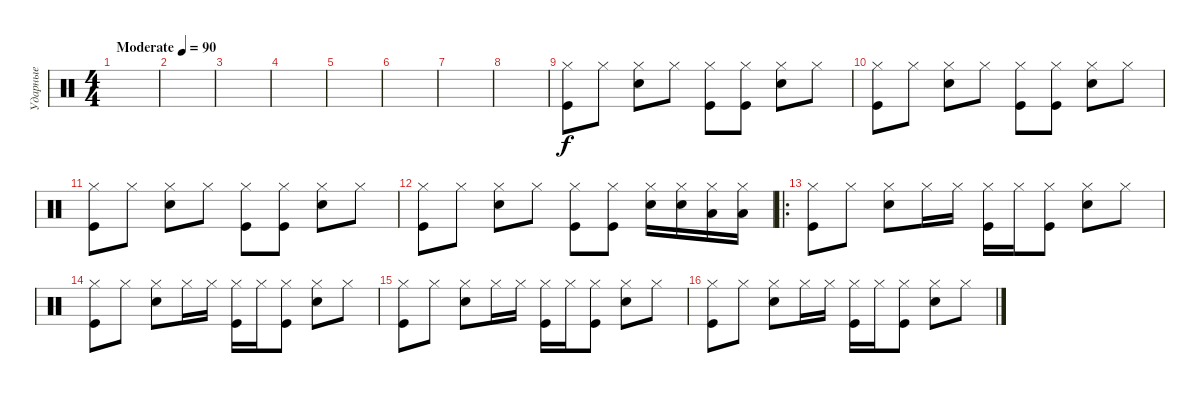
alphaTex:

\track ("Ударные" "Ударные") {instrument percussion}
\staff {score}
\articulation defaults
\ts (4 4)
\tempo (90 "Moderate")
\clef neutral
\ks c
|
|
|
|
|
|
|
|
("Hi-Hat (closed)" "Kick (hit)").8 "Hi-Hat (closed)".8 ("Hi-Hat (closed)" "Snare (hit) 2").8 "Hi-Hat (closed)".8 ("Hi-Hat (closed)" "Kick (hit)").8 ("Hi-Hat (closed)" "Kick (hit)").8 ("Hi-Hat (closed)" "Snare (hit) 2").8 "Hi-Hat (closed)".8 |
("Hi-Hat (closed)" "Kick (hit)").8 "Hi-Hat (closed)".8 ("Hi-Hat (closed)" "Snare (hit) 2").8 "Hi-Hat (closed)".8 ("Hi-Hat (closed)" "Kick (hit)").8 ("Hi-Hat (closed)" "Kick (hit)").8 ("Hi-Hat (closed)" "Snare (hit) 2").8 "Hi-Hat (closed)".8 |
("Hi-Hat (closed)" "Kick (hit)").8 "Hi-Hat (closed)".8 ("Hi-Hat (closed)" "Snare (hit) 2").8 "Hi-Hat (closed)".8 ("Hi-Hat (closed)" "Kick (hit)").8 ("Hi-Hat (closed)" "Kick (hit)").8 ("Hi-Hat (closed)" "Snare (hit) 2").8 "Hi-Hat (closed)".8 |
("Hi-Hat (closed)" "Kick (hit)").8 "Hi-Hat (closed)".8 ("Hi-Hat (closed)" "Snare (hit) 2").8 "Hi-Hat (closed)".8 ("Hi-Hat (closed)" "Kick (hit)").8 ("Hi-Hat (closed)" "Kick (hit)").8 ("Hi-Hat (closed)" "Electric Snare (hit)").16 ("Hi-Hat (closed)" "Electric Snare (hit)").16 ("Hi-Hat (closed)" "Low Tom (hit)").16 ("Hi-Hat (closed)" "Low Tom (hit)").16 |
\ro
("Hi-Hat (closed)" "Kick (hit)").8 "Hi-Hat (closed)".8 ("Hi-Hat (closed)" "Snare (hit) 2").8 "Hi-Hat (closed)".16 "Hi-Hat (closed)".16 ("Hi-Hat (closed)" "Kick (hit)").16 "Hi-Hat (closed)".16 ("Hi-Hat (closed)" "Kick (hit)").8 ("Hi-Hat (closed)" "Snare (hit) 2").8 "Hi-Hat (closed)".8 |
("Hi-Hat (closed)" "Kick (hit)").8 "Hi-Hat (closed)".8 ("Hi-Hat (closed)" "Snare (hit) 2").8 "Hi-Hat (closed)".16 "Hi-Hat (closed)".16 ("Hi-Hat (closed)" "Kick (hit)").16 "Hi-Hat (closed)".16 ("Hi-Hat (closed)" "Kick (hit)").8 ("Hi-Hat (closed)" "Snare (hit) 2").8 "Hi-Hat (closed)".8 |
("Hi-Hat (closed)" "Kick (hit)").8 "Hi-Hat (closed)".8 ("Hi-Hat (closed)" "Snare (hit) 2").8 "Hi-Hat (closed)".16 "Hi-Hat (closed)".16 ("Hi-Hat (closed)" "Kick (hit)").16 "Hi-Hat (closed)".16 ("Hi-Hat (closed)" "Kick (hit)").8 ("Hi-Hat (closed)" "Snare (hit) 2").8 "Hi-Hat (closed)".8 |
("Hi-Hat (closed)" "Kick (hit)").8 "Hi-Hat (closed)".8 ("Hi-Hat (closed)" "Snare (hit) 2").8 "Hi-Hat (closed)".16 "Hi-Hat (closed)".16 ("Hi-Hat (closed)" "Kick (hit)").16 "Hi-Hat (closed)".16 ("Hi-Hat (closed)" "Kick (hit)").8 ("Hi-Hat (closed)" "Snare (hit) 2").8 "Hi-Hat (closed)".8
